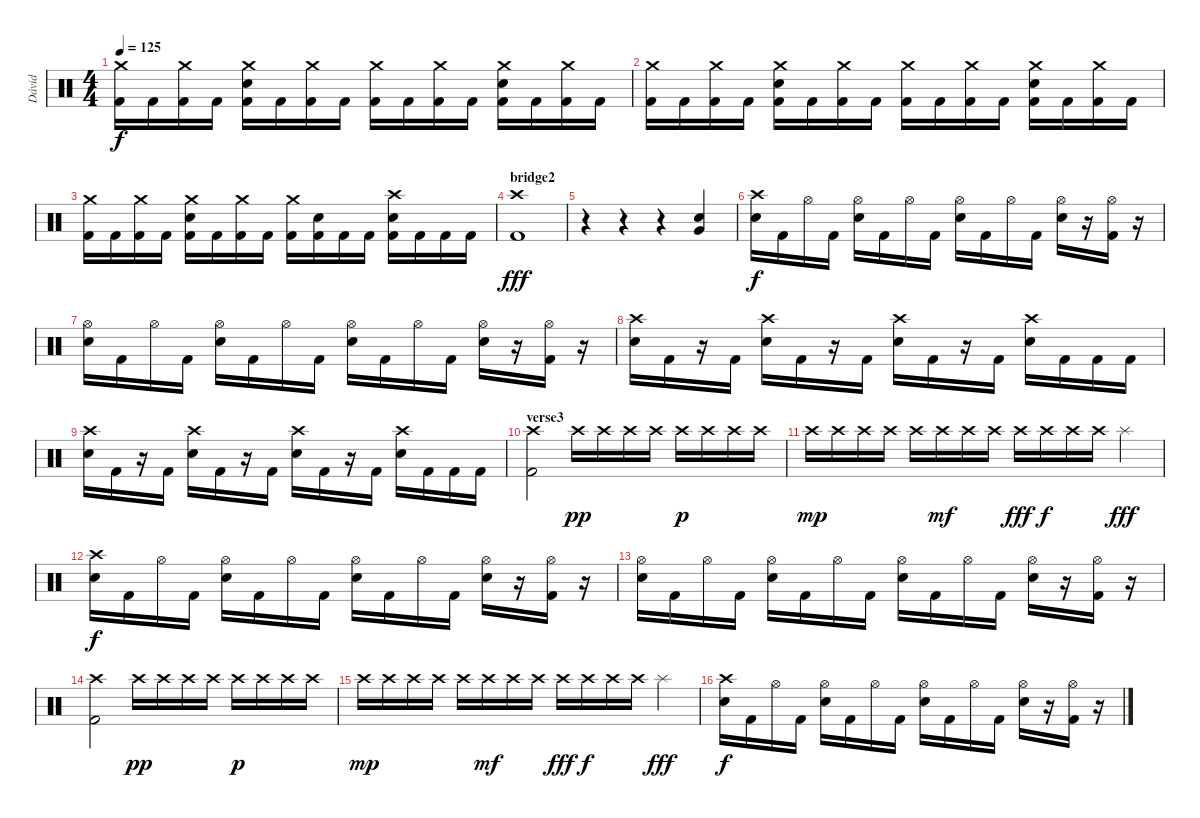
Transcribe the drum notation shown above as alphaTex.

\track ("Dávid" "Dávid") {instrument percussion}
\staff {score}
\articulation defaults
\ts (4 4)
\tempo 125
\clef neutral
\ks c
("Crash medium (hit)" "Kick (hit) 2").16{dy f} "Kick (hit) 2".16 ("Crash medium (hit)" "Kick (hit) 2").16 "Kick (hit) 2".16 ("Crash medium (hit)" "Electric Snare (hit)" "Kick (hit) 2").16 "Kick (hit) 2".16 ("Crash medium (hit)" "Kick (hit) 2").16 "Kick (hit) 2".16 ("Crash medium (hit)" "Kick (hit) 2").16 "Kick (hit) 2".16 ("Crash medium (hit)" "Kick (hit) 2").16 "Kick (hit) 2".16 ("Crash medium (hit)" "Electric Snare (hit)" "Kick (hit) 2").16 "Kick (hit) 2".16 ("Crash medium (hit)" "Kick (hit) 2").16 "Kick (hit) 2".16 |
("Crash medium (hit)" "Kick (hit) 2").16 "Kick (hit) 2".16 ("Crash medium (hit)" "Kick (hit) 2").16 "Kick (hit) 2".16 ("Crash medium (hit)" "Electric Snare (hit)" "Kick (hit) 2").16 "Kick (hit) 2".16 ("Crash medium (hit)" "Kick (hit) 2").16 "Kick (hit) 2".16 ("Crash medium (hit)" "Kick (hit) 2").16 "Kick (hit) 2".16 ("Crash medium (hit)" "Kick (hit) 2").16 "Kick (hit) 2".16 ("Crash medium (hit)" "Electric Snare (hit)" "Kick (hit) 2").16 "Kick (hit) 2".16 ("Crash medium (hit)" "Kick (hit) 2").16 "Kick (hit) 2".16 |
("Crash medium (hit)" "Kick (hit) 2").16 "Kick (hit) 2".16 ("Crash medium (hit)" "Kick (hit) 2").16 "Kick (hit) 2".16 ("Crash medium (hit)" "Electric Snare (hit)" "Kick (hit) 2").16 "Kick (hit) 2".16 ("Crash medium (hit)" "Kick (hit) 2").16 "Kick (hit) 2".16 ("Crash medium (hit)" "Kick (hit) 2").16 ("Electric Snare (hit)" "Kick (hit) 2").16 "Kick (hit) 2".16 "Kick (hit) 2".16 ("Crash high (hit)" "Electric Snare (hit)" "Kick (hit) 2").16 "Kick (hit) 2".16 "Kick (hit) 2".16 "Kick (hit) 2".16 |
\section ("" "bridge2")
("Crash high (hit)" "Kick (hit) 2").1{dy fff} |
r.4 r.4 r.4 ("Electric Snare (hit)" "Very Low Tom (hit)").4 |
("Crash high (hit)" "Electric Snare (hit)").16{dy f} "Kick (hit) 2".16 "Hi-Hat (open)".16 "Kick (hit) 2".16 ("Hi-Hat (open)" "Electric Snare (hit)").16 "Kick (hit) 2".16 "Hi-Hat (open)".16 "Kick (hit) 2".16 ("Hi-Hat (open)" "Electric Snare (hit)").16 "Kick (hit) 2".16 "Hi-Hat (open)".16 "Kick (hit) 2".16 ("Hi-Hat (open)" "Electric Snare (hit)").16 r.16 ("Hi-Hat (open)" "Kick (hit) 2").16 r.16 |
("Hi-Hat (open)" "Electric Snare (hit)").16 "Kick (hit) 2".16 "Hi-Hat (open)".16 "Kick (hit) 2".16 ("Hi-Hat (open)" "Electric Snare (hit)").16 "Kick (hit) 2".16 "Hi-Hat (open)".16 "Kick (hit) 2".16 ("Hi-Hat (open)" "Electric Snare (hit)").16 "Kick (hit) 2".16 "Hi-Hat (open)".16 "Kick (hit) 2".16 ("Hi-Hat (open)" "Electric Snare (hit)").16 r.16 ("Hi-Hat (open)" "Kick (hit) 2").16 r.16 |
("Crash high (hit)" "Electric Snare (hit)").16 "Kick (hit) 2".16 r.16 "Kick (hit) 2".16 ("Crash high (hit)" "Electric Snare (hit)").16 "Kick (hit) 2".16 r.16 "Kick (hit) 2".16 ("Crash high (hit)" "Electric Snare (hit)").16 "Kick (hit) 2".16 r.16 "Kick (hit) 2".16 ("Crash high (hit)" "Electric Snare (hit)").16 "Kick (hit) 2".16 "Kick (hit) 2".16 "Kick (hit) 2".16 |
("Crash high (hit)" "Electric Snare (hit)").16 "Kick (hit) 2".16 r.16 "Kick (hit) 2".16 ("Crash high (hit)" "Electric Snare (hit)").16 "Kick (hit) 2".16 r.16 "Kick (hit) 2".16 ("Crash high (hit)" "Electric Snare (hit)").16 "Kick (hit) 2".16 r.16 "Kick (hit) 2".16 ("Crash high (hit)" "Electric Snare (hit)").16 "Kick (hit) 2".16 "Kick (hit) 2".16 "Kick (hit) 2".16 |
\section ("" "verse3")
("Crash high (hit)" "Kick (hit) 2").2 "Crash high (hit)".16{dy pp} "Crash high (hit)".16 "Crash high (hit)".16 "Crash high (hit)".16 "Crash high (hit)".16{dy p} "Crash high (hit)".16 "Crash high (hit)".16 "Crash high (hit)".16 |
"Crash high (hit)".16{dy mp} "Crash high (hit)".16 "Crash high (hit)".16 "Crash high (hit)".16 "Crash high (hit)".16 "Crash high (hit)".16{dy mf} "Crash high (hit)".16 "Crash high (hit)".16 "Crash high (hit)".16{dy fff} "Crash high (hit)".16{dy f} "Crash high (hit)".16 "Crash high (hit)".16 "Splash (hit)".4{dy fff} |
("Crash high (hit)" "Electric Snare (hit)").16{dy f} "Kick (hit) 2".16 "Hi-Hat (open)".16 "Kick (hit) 2".16 ("Hi-Hat (open)" "Electric Snare (hit)").16 "Kick (hit) 2".16 "Hi-Hat (open)".16 "Kick (hit) 2".16 ("Hi-Hat (open)" "Electric Snare (hit)").16 "Kick (hit) 2".16 "Hi-Hat (open)".16 "Kick (hit) 2".16 ("Hi-Hat (open)" "Electric Snare (hit)").16 r.16 ("Hi-Hat (open)" "Kick (hit) 2").16 r.16 |
("Hi-Hat (open)" "Electric Snare (hit)").16 "Kick (hit) 2".16 "Hi-Hat (open)".16 "Kick (hit) 2".16 ("Hi-Hat (open)" "Electric Snare (hit)").16 "Kick (hit) 2".16 "Hi-Hat (open)".16 "Kick (hit) 2".16 ("Hi-Hat (open)" "Electric Snare (hit)").16 "Kick (hit) 2".16 "Hi-Hat (open)".16 "Kick (hit) 2".16 ("Hi-Hat (open)" "Electric Snare (hit)").16 r.16 ("Hi-Hat (open)" "Kick (hit) 2").16 r.16 |
("Crash high (hit)" "Kick (hit) 2").2 "Crash high (hit)".16{dy pp} "Crash high (hit)".16 "Crash high (hit)".16 "Crash high (hit)".16 "Crash high (hit)".16{dy p} "Crash high (hit)".16 "Crash high (hit)".16 "Crash high (hit)".16 |
"Crash high (hit)".16{dy mp} "Crash high (hit)".16 "Crash high (hit)".16 "Crash high (hit)".16 "Crash high (hit)".16 "Crash high (hit)".16{dy mf} "Crash high (hit)".16 "Crash high (hit)".16 "Crash high (hit)".16{dy fff} "Crash high (hit)".16{dy f} "Crash high (hit)".16 "Crash high (hit)".16 "Splash (hit)".4{dy fff} |
("Crash high (hit)" "Electric Snare (hit)").16{dy f} "Kick (hit) 2".16 "Hi-Hat (open)".16 "Kick (hit) 2".16 ("Hi-Hat (open)" "Electric Snare (hit)").16 "Kick (hit) 2".16 "Hi-Hat (open)".16 "Kick (hit) 2".16 ("Hi-Hat (open)" "Electric Snare (hit)").16 "Kick (hit) 2".16 "Hi-Hat (open)".16 "Kick (hit) 2".16 ("Hi-Hat (open)" "Electric Snare (hit)").16 r.16 ("Hi-Hat (open)" "Kick (hit) 2").16 r.16
